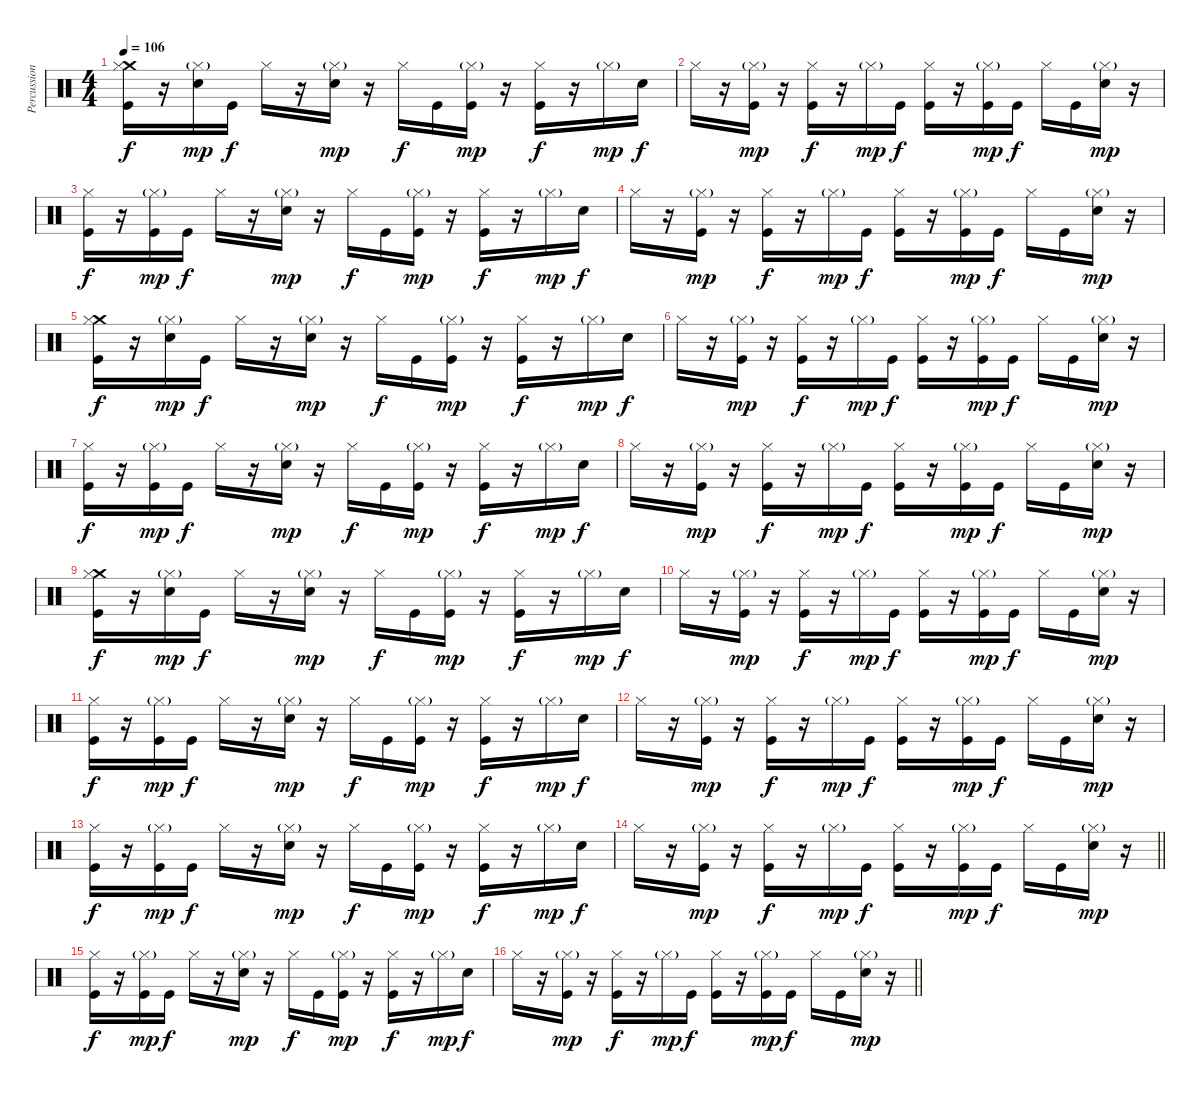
\track ("Percussion" "Percussion") {instrument percussion}
\staff {score}
\articulation defaults
\ts (4 4)
\tempo 106
\clef neutral
\ks c
("Crash medium (hit)" "Hi-Hat (closed)" "Kick (hit)").16{dy f} r.16 ("Hi-Hat (closed)"{g} "Snare (hit) 2").16{dy mp} "Kick (hit)".16{dy f} "Hi-Hat (closed)".16 r.16 ("Hi-Hat (closed)"{g} "Snare (hit) 2").16{dy mp} r.16 "Hi-Hat (closed)".16{dy f} "Kick (hit)".16 ("Hi-Hat (closed)"{g} "Kick (hit)").16{dy mp} r.16 ("Hi-Hat (closed)" "Kick (hit)").16{dy f} r.16 "Hi-Hat (closed)"{g}.16{dy mp} "Snare (hit) 2".16{dy f} |
"Hi-Hat (closed)".16 r.16 ("Hi-Hat (closed)"{g} "Kick (hit)").16{dy mp} r.16 ("Hi-Hat (closed)" "Kick (hit)").16{dy f} r.16 "Hi-Hat (closed)"{g}.16{dy mp} "Kick (hit)".16{dy f} ("Hi-Hat (closed)" "Kick (hit)").16 r.16 ("Hi-Hat (closed)"{g} "Kick (hit)").16{dy mp} "Kick (hit)".16{dy f} "Hi-Hat (closed)".16 "Kick (hit)".16 ("Hi-Hat (closed)"{g} "Snare (hit) 2").16{dy mp} r.16 |
("Hi-Hat (closed)" "Kick (hit)").16{dy f} r.16 ("Hi-Hat (closed)"{g} "Kick (hit)").16{dy mp} "Kick (hit)".16{dy f} "Hi-Hat (closed)".16 r.16 ("Hi-Hat (closed)"{g} "Snare (hit) 2").16{dy mp} r.16 "Hi-Hat (closed)".16{dy f} "Kick (hit)".16 ("Hi-Hat (closed)"{g} "Kick (hit)").16{dy mp} r.16 ("Hi-Hat (closed)" "Kick (hit)").16{dy f} r.16 "Hi-Hat (closed)"{g}.16{dy mp} "Snare (hit) 2".16{dy f} |
"Hi-Hat (closed)".16 r.16 ("Hi-Hat (closed)"{g} "Kick (hit)").16{dy mp} r.16 ("Hi-Hat (closed)" "Kick (hit)").16{dy f} r.16 "Hi-Hat (closed)"{g}.16{dy mp} "Kick (hit)".16{dy f} ("Hi-Hat (closed)" "Kick (hit)").16 r.16 ("Hi-Hat (closed)"{g} "Kick (hit)").16{dy mp} "Kick (hit)".16{dy f} "Hi-Hat (closed)".16 "Kick (hit)".16 ("Hi-Hat (closed)"{g} "Snare (hit) 2").16{dy mp} r.16 |
("Crash medium (hit)" "Hi-Hat (closed)" "Kick (hit)").16{dy f} r.16 ("Hi-Hat (closed)"{g} "Snare (hit) 2").16{dy mp} "Kick (hit)".16{dy f} "Hi-Hat (closed)".16 r.16 ("Hi-Hat (closed)"{g} "Snare (hit) 2").16{dy mp} r.16 "Hi-Hat (closed)".16{dy f} "Kick (hit)".16 ("Hi-Hat (closed)"{g} "Kick (hit)").16{dy mp} r.16 ("Hi-Hat (closed)" "Kick (hit)").16{dy f} r.16 "Hi-Hat (closed)"{g}.16{dy mp} "Snare (hit) 2".16{dy f} |
"Hi-Hat (closed)".16 r.16 ("Hi-Hat (closed)"{g} "Kick (hit)").16{dy mp} r.16 ("Hi-Hat (closed)" "Kick (hit)").16{dy f} r.16 "Hi-Hat (closed)"{g}.16{dy mp} "Kick (hit)".16{dy f} ("Hi-Hat (closed)" "Kick (hit)").16 r.16 ("Hi-Hat (closed)"{g} "Kick (hit)").16{dy mp} "Kick (hit)".16{dy f} "Hi-Hat (closed)".16 "Kick (hit)".16 ("Hi-Hat (closed)"{g} "Snare (hit) 2").16{dy mp} r.16 |
("Hi-Hat (closed)" "Kick (hit)").16{dy f} r.16 ("Hi-Hat (closed)"{g} "Kick (hit)").16{dy mp} "Kick (hit)".16{dy f} "Hi-Hat (closed)".16 r.16 ("Hi-Hat (closed)"{g} "Snare (hit) 2").16{dy mp} r.16 "Hi-Hat (closed)".16{dy f} "Kick (hit)".16 ("Hi-Hat (closed)"{g} "Kick (hit)").16{dy mp} r.16 ("Hi-Hat (closed)" "Kick (hit)").16{dy f} r.16 "Hi-Hat (closed)"{g}.16{dy mp} "Snare (hit) 2".16{dy f} |
"Hi-Hat (closed)".16 r.16 ("Hi-Hat (closed)"{g} "Kick (hit)").16{dy mp} r.16 ("Hi-Hat (closed)" "Kick (hit)").16{dy f} r.16 "Hi-Hat (closed)"{g}.16{dy mp} "Kick (hit)".16{dy f} ("Hi-Hat (closed)" "Kick (hit)").16 r.16 ("Hi-Hat (closed)"{g} "Kick (hit)").16{dy mp} "Kick (hit)".16{dy f} "Hi-Hat (closed)".16 "Kick (hit)".16 ("Hi-Hat (closed)"{g} "Snare (hit) 2").16{dy mp} r.16 |
("Crash medium (hit)" "Hi-Hat (closed)" "Kick (hit)").16{dy f} r.16 ("Hi-Hat (closed)"{g} "Snare (hit) 2").16{dy mp} "Kick (hit)".16{dy f} "Hi-Hat (closed)".16 r.16 ("Hi-Hat (closed)"{g} "Snare (hit) 2").16{dy mp} r.16 "Hi-Hat (closed)".16{dy f} "Kick (hit)".16 ("Hi-Hat (closed)"{g} "Kick (hit)").16{dy mp} r.16 ("Hi-Hat (closed)" "Kick (hit)").16{dy f} r.16 "Hi-Hat (closed)"{g}.16{dy mp} "Snare (hit) 2".16{dy f} |
"Hi-Hat (closed)".16 r.16 ("Hi-Hat (closed)"{g} "Kick (hit)").16{dy mp} r.16 ("Hi-Hat (closed)" "Kick (hit)").16{dy f} r.16 "Hi-Hat (closed)"{g}.16{dy mp} "Kick (hit)".16{dy f} ("Hi-Hat (closed)" "Kick (hit)").16 r.16 ("Hi-Hat (closed)"{g} "Kick (hit)").16{dy mp} "Kick (hit)".16{dy f} "Hi-Hat (closed)".16 "Kick (hit)".16 ("Hi-Hat (closed)"{g} "Snare (hit) 2").16{dy mp} r.16 |
("Hi-Hat (closed)" "Kick (hit)").16{dy f} r.16 ("Hi-Hat (closed)"{g} "Kick (hit)").16{dy mp} "Kick (hit)".16{dy f} "Hi-Hat (closed)".16 r.16 ("Hi-Hat (closed)"{g} "Snare (hit) 2").16{dy mp} r.16 "Hi-Hat (closed)".16{dy f} "Kick (hit)".16 ("Hi-Hat (closed)"{g} "Kick (hit)").16{dy mp} r.16 ("Hi-Hat (closed)" "Kick (hit)").16{dy f} r.16 "Hi-Hat (closed)"{g}.16{dy mp} "Snare (hit) 2".16{dy f} |
"Hi-Hat (closed)".16 r.16 ("Hi-Hat (closed)"{g} "Kick (hit)").16{dy mp} r.16 ("Hi-Hat (closed)" "Kick (hit)").16{dy f} r.16 "Hi-Hat (closed)"{g}.16{dy mp} "Kick (hit)".16{dy f} ("Hi-Hat (closed)" "Kick (hit)").16 r.16 ("Hi-Hat (closed)"{g} "Kick (hit)").16{dy mp} "Kick (hit)".16{dy f} "Hi-Hat (closed)".16 "Kick (hit)".16 ("Hi-Hat (closed)"{g} "Snare (hit) 2").16{dy mp} r.16 |
("Hi-Hat (closed)" "Kick (hit)").16{dy f} r.16 ("Hi-Hat (closed)"{g} "Kick (hit)").16{dy mp} "Kick (hit)".16{dy f} "Hi-Hat (closed)".16 r.16 ("Hi-Hat (closed)"{g} "Snare (hit) 2").16{dy mp} r.16 "Hi-Hat (closed)".16{dy f} "Kick (hit)".16 ("Hi-Hat (closed)"{g} "Kick (hit)").16{dy mp} r.16 ("Hi-Hat (closed)" "Kick (hit)").16{dy f} r.16 "Hi-Hat (closed)"{g}.16{dy mp} "Snare (hit) 2".16{dy f} |
\barLineRight lightlight "Hi-Hat (closed)".16
r.16 ("Hi-Hat (closed)"{g} "Kick (hit)").16{dy mp} r.16 ("Hi-Hat (closed)" "Kick (hit)").16{dy f} r.16 "Hi-Hat (closed)"{g}.16{dy mp} "Kick (hit)".16{dy f} ("Hi-Hat (closed)" "Kick (hit)").16 r.16 ("Hi-Hat (closed)"{g} "Kick (hit)").16{dy mp} "Kick (hit)".16{dy f} "Hi-Hat (closed)".16 "Kick (hit)".16 ("Hi-Hat (closed)"{g} "Snare (hit) 2").16{dy mp} r.16 |
("Hi-Hat (closed)" "Kick (hit)").16{dy f} r.16 ("Hi-Hat (closed)"{g} "Kick (hit)").16{dy mp} "Kick (hit)".16{dy f} "Hi-Hat (closed)".16 r.16 ("Hi-Hat (closed)"{g} "Snare (hit) 2").16{dy mp} r.16 "Hi-Hat (closed)".16{dy f} "Kick (hit)".16 ("Hi-Hat (closed)"{g} "Kick (hit)").16{dy mp} r.16 ("Hi-Hat (closed)" "Kick (hit)").16{dy f} r.16 "Hi-Hat (closed)"{g}.16{dy mp} "Snare (hit) 2".16{dy f} |
\barLineRight lightlight "Hi-Hat (closed)".16
r.16 ("Hi-Hat (closed)"{g} "Kick (hit)").16{dy mp} r.16 ("Hi-Hat (closed)" "Kick (hit)").16{dy f} r.16 "Hi-Hat (closed)"{g}.16{dy mp} "Kick (hit)".16{dy f} ("Hi-Hat (closed)" "Kick (hit)").16 r.16 ("Hi-Hat (closed)"{g} "Kick (hit)").16{dy mp} "Kick (hit)".16{dy f} "Hi-Hat (closed)".16 "Kick (hit)".16 ("Hi-Hat (closed)"{g} "Snare (hit) 2").16{dy mp} r.16
